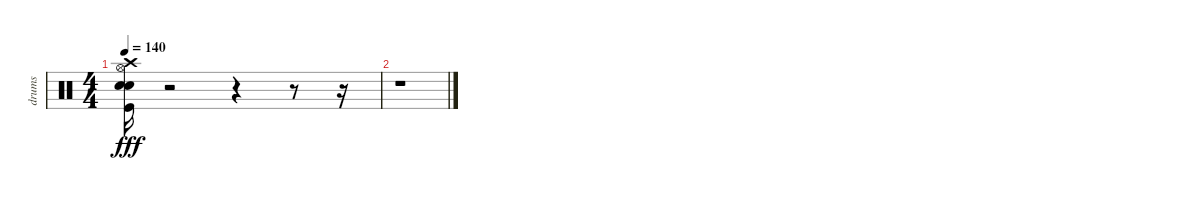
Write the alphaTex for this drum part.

\track ("drums" "drums") {instrument percussion}
\staff {score}
\articulation defaults
\ts (4 4)
\tempo 140
\clef neutral
\ks c
("Crash high (hit)" "Hi-Hat (open)" "Electric Snare (hit)" "Snare (hit) 2" "Kick (hit)").16{dy fff} r.2 r.4 r.8 r.16 |
r.1
